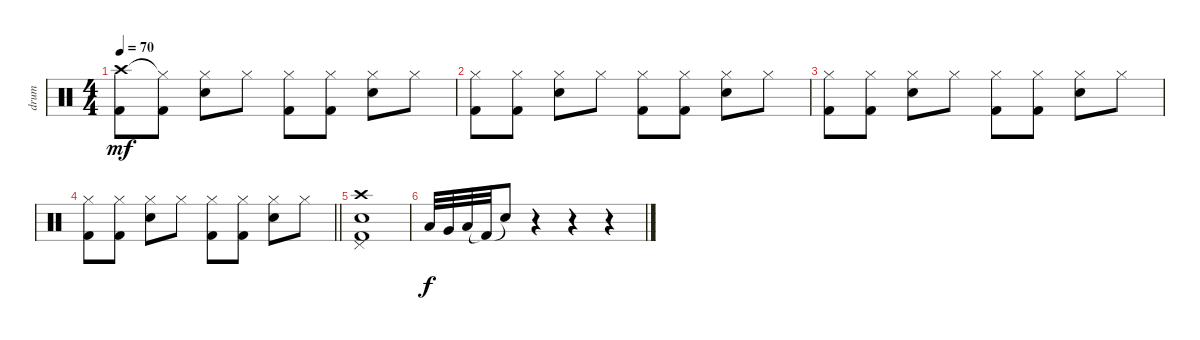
\track ("drum" "drum") {instrument percussion}
\staff
\articulation defaults
\ts (4 4)
\tempo 70
\clef neutral
\ks c
("Crash high (hit)" "Kick (hit) 2").8{dy mf} ("Hi-Hat (closed)"{t} "Kick (hit) 2").8 ("Hi-Hat (closed)" "Electric Snare (hit)").8 "Hi-Hat (closed)".8 ("Hi-Hat (closed)" "Kick (hit) 2").8 ("Hi-Hat (closed)" "Kick (hit) 2").8 ("Hi-Hat (closed)" "Electric Snare (hit)").8 "Hi-Hat (closed)".8 |
("Hi-Hat (closed)" "Kick (hit) 2").8 ("Hi-Hat (closed)" "Kick (hit) 2").8 ("Hi-Hat (closed)" "Electric Snare (hit)").8 "Hi-Hat (closed)".8 ("Hi-Hat (closed)" "Kick (hit) 2").8 ("Hi-Hat (closed)" "Kick (hit) 2").8 ("Hi-Hat (closed)" "Electric Snare (hit)").8 "Hi-Hat (closed)".8 |
("Hi-Hat (closed)" "Kick (hit) 2").8 ("Hi-Hat (closed)" "Kick (hit) 2").8 ("Hi-Hat (closed)" "Electric Snare (hit)").8 "Hi-Hat (closed)".8 ("Hi-Hat (closed)" "Kick (hit) 2").8 ("Hi-Hat (closed)" "Kick (hit) 2").8 ("Hi-Hat (closed)" "Electric Snare (hit)").8 "Hi-Hat (closed)".8 |
\barLineRight lightlight
("Hi-Hat (closed)" "Kick (hit) 2").8 ("Hi-Hat (closed)" "Kick (hit) 2").8 ("Hi-Hat (closed)" "Electric Snare (hit)").8 "Hi-Hat (closed)".8 ("Hi-Hat (closed)" "Kick (hit) 2").8 ("Hi-Hat (closed)" "Kick (hit) 2").8 ("Hi-Hat (closed)" "Electric Snare (hit)").8 "Hi-Hat (closed)".8 |
("Crash high (hit)" "Pedal Hi-Hat (hit)" "Electric Snare (hit)" "Kick (hit) 2").1 |
"Low Tom (hit)".32{dy f} "Very Low Tom (hit)".32 "Low Floor Tom (hit)".32 "Kick (hit) 2"{t}.32 "Snare (hit)"{t}.8 r.4 r.4 r.4
